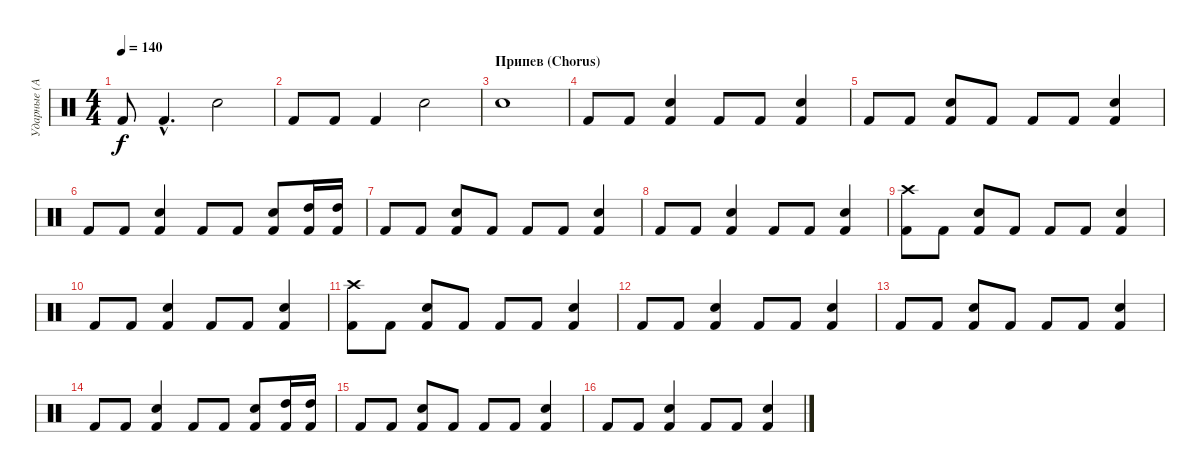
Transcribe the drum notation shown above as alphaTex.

\track ("Ударные (Алексей Барзилович)" "Ударные (А") {instrument percussion}
\staff {score}
\articulation defaults
\ts (4 4)
\tempo 140
\clef neutral
\ks c "Kick (hit) 2".8{dy f} "Kick (hit) 2"{hac}.4{d} "Electric Snare (hit)".2
|
"Kick (hit) 2".8 "Kick (hit) 2".8 "Kick (hit) 2".4 "Electric Snare (hit)".2 |
\section ("" "Припев (Chorus)")
"Electric Snare (hit)".1 |
"Kick (hit) 2".8 "Kick (hit) 2".8 ("Electric Snare (hit)" "Kick (hit) 2").4 "Kick (hit) 2".8 "Kick (hit) 2".8 ("Electric Snare (hit)" "Kick (hit) 2").4 |
"Kick (hit) 2".8 "Kick (hit) 2".8 ("Electric Snare (hit)" "Kick (hit) 2").8 "Kick (hit) 2".8 "Kick (hit) 2".8 "Kick (hit) 2".8 ("Electric Snare (hit)" "Kick (hit) 2").4 |
"Kick (hit) 2".8 "Kick (hit) 2".8 ("Electric Snare (hit)" "Kick (hit) 2").4 "Kick (hit) 2".8 "Kick (hit) 2".8 ("Electric Snare (hit)" "Kick (hit) 2").8 ("High Tom (hit)" "Kick (hit) 2").16 ("High Tom (hit)" "Kick (hit) 2").16 |
"Kick (hit) 2".8 "Kick (hit) 2".8 ("Electric Snare (hit)" "Kick (hit) 2").8 "Kick (hit) 2".8 "Kick (hit) 2".8 "Kick (hit) 2".8 ("Electric Snare (hit)" "Kick (hit) 2").4 |
"Kick (hit) 2".8 "Kick (hit) 2".8 ("Electric Snare (hit)" "Kick (hit) 2").4 "Kick (hit) 2".8 "Kick (hit) 2".8 ("Electric Snare (hit)" "Kick (hit) 2").4 |
("Crash high (hit)" "Kick (hit) 2").8 "Kick (hit) 2".8 ("Electric Snare (hit)" "Kick (hit) 2").8 "Kick (hit) 2".8 "Kick (hit) 2".8 "Kick (hit) 2".8 ("Electric Snare (hit)" "Kick (hit) 2").4 |
"Kick (hit) 2".8 "Kick (hit) 2".8 ("Electric Snare (hit)" "Kick (hit) 2").4 "Kick (hit) 2".8 "Kick (hit) 2".8 ("Electric Snare (hit)" "Kick (hit) 2").4 |
("Crash high (hit)" "Kick (hit) 2").8 "Kick (hit) 2".8 ("Electric Snare (hit)" "Kick (hit) 2").8 "Kick (hit) 2".8 "Kick (hit) 2".8 "Kick (hit) 2".8 ("Electric Snare (hit)" "Kick (hit) 2").4 |
"Kick (hit) 2".8 "Kick (hit) 2".8 ("Electric Snare (hit)" "Kick (hit) 2").4 "Kick (hit) 2".8 "Kick (hit) 2".8 ("Electric Snare (hit)" "Kick (hit) 2").4 |
"Kick (hit) 2".8 "Kick (hit) 2".8 ("Electric Snare (hit)" "Kick (hit) 2").8 "Kick (hit) 2".8 "Kick (hit) 2".8 "Kick (hit) 2".8 ("Electric Snare (hit)" "Kick (hit) 2").4 |
"Kick (hit) 2".8 "Kick (hit) 2".8 ("Electric Snare (hit)" "Kick (hit) 2").4 "Kick (hit) 2".8 "Kick (hit) 2".8 ("Electric Snare (hit)" "Kick (hit) 2").8 ("High Tom (hit)" "Kick (hit) 2").16 ("High Tom (hit)" "Kick (hit) 2").16 |
"Kick (hit) 2".8 "Kick (hit) 2".8 ("Electric Snare (hit)" "Kick (hit) 2").8 "Kick (hit) 2".8 "Kick (hit) 2".8 "Kick (hit) 2".8 ("Electric Snare (hit)" "Kick (hit) 2").4 |
"Kick (hit) 2".8 "Kick (hit) 2".8 ("Electric Snare (hit)" "Kick (hit) 2").4 "Kick (hit) 2".8 "Kick (hit) 2".8 ("Electric Snare (hit)" "Kick (hit) 2").4
